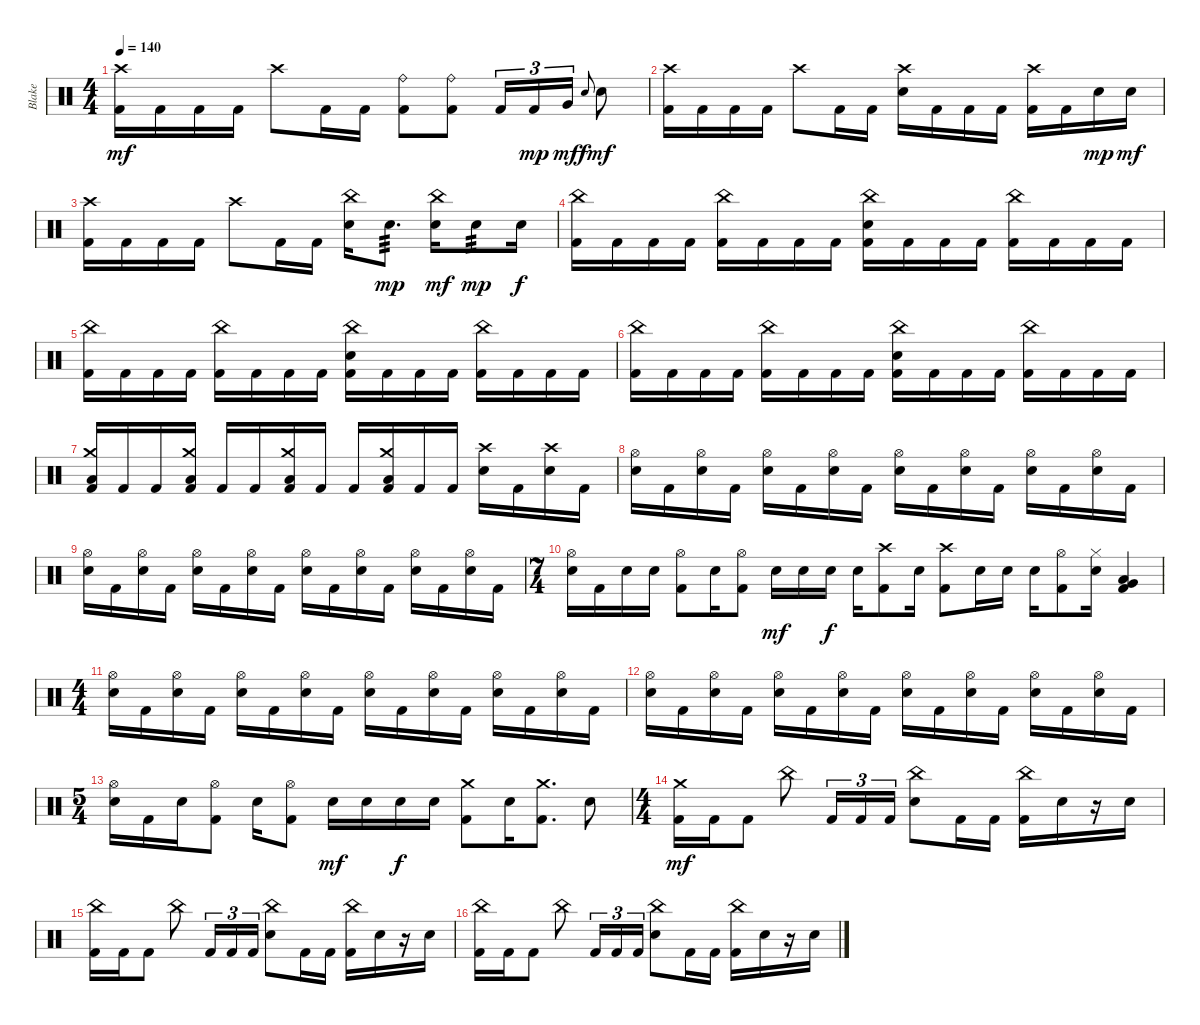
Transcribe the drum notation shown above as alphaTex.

\track ("Blake" "Blake") {instrument percussion}
\staff {score}
\articulation defaults
\ts (4 4)
\tempo 140
\clef neutral
\ks c
("Crash high (hit)" "Kick (hit) 2").16{dy mf} "Kick (hit) 2".16 "Kick (hit) 2".16 "Kick (hit) 2".16 "Crash high (hit)".8 "Kick (hit) 2".16 "Kick (hit) 2".16 ("Ride (bell)" "Kick (hit) 2").8 ("Ride (bell)" "Kick (hit) 2").8 "Kick (hit) 2".16{tu (3 2)} "Kick (hit) 2".16{tu (3 2) dy mp} "Very Low Tom (hit)".16{tu (3 2) dy mf} "Snare (hit) 2".8{gr onbeat dy f} "Snare (hit) 2".8{dy mf} |
("Crash high (hit)" "Kick (hit) 2").16 "Kick (hit) 2".16 "Kick (hit) 2".16 "Kick (hit) 2".16 "Crash high (hit)".8 "Kick (hit) 2".16 "Kick (hit) 2".16 ("Crash high (hit)" "Snare (hit) 2").16 "Kick (hit) 2".16 "Kick (hit) 2".16 "Kick (hit) 2".16 ("Crash high (hit)" "Kick (hit) 2").16 "Kick (hit) 2".16 "Snare (hit) 2".16{dy mp} "Snare (hit) 2".16{dy mf} |
("Crash high (hit)" "Kick (hit) 2").16 "Kick (hit) 2".16 "Kick (hit) 2".16 "Kick (hit) 2".16 "Crash high (hit)".8 "Kick (hit) 2".16 "Kick (hit) 2".16 ("China (hit)" "Snare (hit) 2").16 "Snare (hit) 2".8{d tp 3 dy mp} ("China (hit)" "Snare (hit) 2").16{dy mf} "Snare (hit) 2".8{tp 3 dy mp} "Snare (hit) 2".16{dy f} |
("China (hit)" "Kick (hit) 2").16 "Kick (hit) 2".16 "Kick (hit) 2".16 "Kick (hit) 2".16 ("China (hit)" "Kick (hit) 2").16 "Kick (hit) 2".16 "Kick (hit) 2".16 "Kick (hit) 2".16 ("China (hit)" "Snare (hit) 2" "Kick (hit) 2").16 "Kick (hit) 2".16 "Kick (hit) 2".16 "Kick (hit) 2".16 ("China (hit)" "Kick (hit) 2").16 "Kick (hit) 2".16 "Kick (hit) 2".16 "Kick (hit) 2".16 |
("China (hit)" "Kick (hit) 2").16 "Kick (hit) 2".16 "Kick (hit) 2".16 "Kick (hit) 2".16 ("China (hit)" "Kick (hit) 2").16 "Kick (hit) 2".16 "Kick (hit) 2".16 "Kick (hit) 2".16 ("China (hit)" "Snare (hit) 2" "Kick (hit) 2").16 "Kick (hit) 2".16 "Kick (hit) 2".16 "Kick (hit) 2".16 ("China (hit)" "Kick (hit) 2").16 "Kick (hit) 2".16 "Kick (hit) 2".16 "Kick (hit) 2".16 |
("China (hit)" "Kick (hit) 2").16 "Kick (hit) 2".16 "Kick (hit) 2".16 "Kick (hit) 2".16 ("China (hit)" "Kick (hit) 2").16 "Kick (hit) 2".16 "Kick (hit) 2".16 "Kick (hit) 2".16 ("China (hit)" "Snare (hit) 2" "Kick (hit) 2").16 "Kick (hit) 2".16 "Kick (hit) 2".16 "Kick (hit) 2".16 ("China (hit)" "Kick (hit) 2").16 "Kick (hit) 2".16 "Kick (hit) 2".16 "Kick (hit) 2".16 |
("Crash medium (hit)" "Low Floor Tom (hit)" "Kick (hit) 2").16 "Kick (hit) 2".16 "Kick (hit) 2".16 ("Crash medium (hit)" "Low Floor Tom (hit)" "Kick (hit) 2").16 "Kick (hit) 2".16 "Kick (hit) 2".16 ("Crash medium (hit)" "Low Floor Tom (hit)" "Kick (hit) 2").16 "Kick (hit) 2".16 "Kick (hit) 2".16 ("Crash medium (hit)" "Low Floor Tom (hit)" "Kick (hit) 2").16 "Kick (hit) 2".16 "Kick (hit) 2".16 ("Crash high (hit)" "Snare (hit) 2").16 "Kick (hit) 2".16 ("Crash high (hit)" "Snare (hit) 2").16 "Kick (hit) 2".16 |
("Hi-Hat (open)" "Snare (hit) 2").16 "Kick (hit) 2".16 ("Hi-Hat (open)" "Snare (hit) 2").16 "Kick (hit) 2".16 ("Hi-Hat (open)" "Snare (hit) 2").16 "Kick (hit) 2".16 ("Hi-Hat (open)" "Snare (hit) 2").16 "Kick (hit) 2".16 ("Hi-Hat (open)" "Snare (hit) 2").16 "Kick (hit) 2".16 ("Hi-Hat (open)" "Snare (hit) 2").16 "Kick (hit) 2".16 ("Hi-Hat (open)" "Snare (hit) 2").16 "Kick (hit) 2".16 ("Hi-Hat (open)" "Snare (hit) 2").16 "Kick (hit) 2".16 |
("Hi-Hat (open)" "Snare (hit) 2").16 "Kick (hit) 2".16 ("Hi-Hat (open)" "Snare (hit) 2").16 "Kick (hit) 2".16 ("Hi-Hat (open)" "Snare (hit) 2").16 "Kick (hit) 2".16 ("Hi-Hat (open)" "Snare (hit) 2").16 "Kick (hit) 2".16 ("Hi-Hat (open)" "Snare (hit) 2").16 "Kick (hit) 2".16 ("Hi-Hat (open)" "Snare (hit) 2").16 "Kick (hit) 2".16 ("Hi-Hat (open)" "Snare (hit) 2").16 "Kick (hit) 2".16 ("Hi-Hat (open)" "Snare (hit) 2").16 "Kick (hit) 2".16 |
\ts (7 4)
("Hi-Hat (open)" "Snare (hit) 2").16 "Kick (hit) 2".16 "Snare (hit) 2".16 "Snare (hit) 2".16 ("Hi-Hat (open)" "Kick (hit) 2").8 "Snare (hit) 2".16 ("Hi-Hat (open)" "Kick (hit) 2").8 "Snare (hit) 2".16{dy mf} "Snare (hit) 2".16 "Snare (hit) 2".16{dy f} "Snare (hit) 2".16 ("Crash high (hit)" "Kick (hit) 2").8 "Snare (hit) 2".16 ("Crash high (hit)" "Kick (hit) 2").8 "Snare (hit) 2".16 "Snare (hit) 2".16 "Snare (hit) 2".16 ("Hi-Hat (open)" "Kick (hit) 2").8 ("Hi-Hat (closed)" "Snare (hit) 2").16 ("Very Low Tom (hit)" "Low Floor Tom (hit)" "Kick (hit) 2").4 |
\ts (4 4)
("Hi-Hat (open)" "Snare (hit) 2").16 "Kick (hit) 2".16 ("Hi-Hat (open)" "Snare (hit) 2").16 "Kick (hit) 2".16 ("Hi-Hat (open)" "Snare (hit) 2").16 "Kick (hit) 2".16 ("Hi-Hat (open)" "Snare (hit) 2").16 "Kick (hit) 2".16 ("Hi-Hat (open)" "Snare (hit) 2").16 "Kick (hit) 2".16 ("Hi-Hat (open)" "Snare (hit) 2").16 "Kick (hit) 2".16 ("Hi-Hat (open)" "Snare (hit) 2").16 "Kick (hit) 2".16 ("Hi-Hat (open)" "Snare (hit) 2").16 "Kick (hit) 2".16 |
("Hi-Hat (open)" "Snare (hit) 2").16 "Kick (hit) 2".16 ("Hi-Hat (open)" "Snare (hit) 2").16 "Kick (hit) 2".16 ("Hi-Hat (open)" "Snare (hit) 2").16 "Kick (hit) 2".16 ("Hi-Hat (open)" "Snare (hit) 2").16 "Kick (hit) 2".16 ("Hi-Hat (open)" "Snare (hit) 2").16 "Kick (hit) 2".16 ("Hi-Hat (open)" "Snare (hit) 2").16 "Kick (hit) 2".16 ("Hi-Hat (open)" "Snare (hit) 2").16 "Kick (hit) 2".16 ("Hi-Hat (open)" "Snare (hit) 2").16 "Kick (hit) 2".16 |
\ts (5 4)
("Hi-Hat (open)" "Snare (hit) 2").16 "Kick (hit) 2".16 "Snare (hit) 2".16 ("Hi-Hat (open)" "Kick (hit) 2").8 "Snare (hit) 2".16 ("Hi-Hat (open)" "Kick (hit) 2").8 "Snare (hit) 2".16{dy mf} "Snare (hit) 2".16 "Snare (hit) 2".16{dy f} "Snare (hit) 2".16 ("Crash medium (hit)" "Kick (hit) 2").8 "Snare (hit) 2".16 ("Crash medium (hit)" "Kick (hit) 2").8{d} "Snare (hit) 2".8 |
\ts (4 4)
("Crash medium (hit)" "Kick (hit) 2").16{dy mf} "Kick (hit) 2".16 "Kick (hit) 2".8 "China (hit)".8 "Kick (hit) 2".16{tu (3 2)} "Kick (hit) 2".16{tu (3 2)} "Kick (hit) 2".16{tu (3 2)} ("China (hit)" "Snare (hit) 2").8 "Kick (hit) 2".16 "Kick (hit) 2".16 ("China (hit)" "Kick (hit) 2").16 "Snare (hit) 2".16 r.16 "Snare (hit) 2".16 |
("China (hit)" "Kick (hit) 2").16 "Kick (hit) 2".16 "Kick (hit) 2".8 "China (hit)".8 "Kick (hit) 2".16{tu (3 2)} "Kick (hit) 2".16{tu (3 2)} "Kick (hit) 2".16{tu (3 2)} ("China (hit)" "Snare (hit) 2").8 "Kick (hit) 2".16 "Kick (hit) 2".16 ("China (hit)" "Kick (hit) 2").16 "Snare (hit) 2".16 r.16 "Snare (hit) 2".16 |
("China (hit)" "Kick (hit) 2").16 "Kick (hit) 2".16 "Kick (hit) 2".8 "China (hit)".8 "Kick (hit) 2".16{tu (3 2)} "Kick (hit) 2".16{tu (3 2)} "Kick (hit) 2".16{tu (3 2)} ("China (hit)" "Snare (hit) 2").8 "Kick (hit) 2".16 "Kick (hit) 2".16 ("China (hit)" "Kick (hit) 2").16 "Snare (hit) 2".16 r.16 "Snare (hit) 2".16
